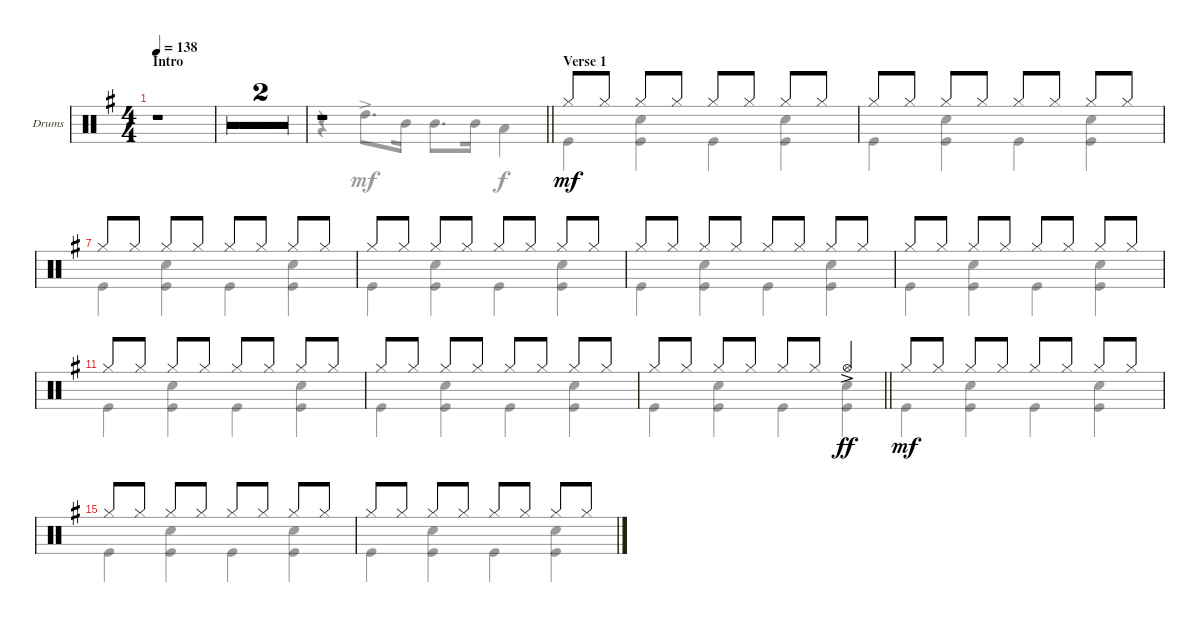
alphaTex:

\defaultSystemsLayout 4
\bracketExtendMode groupsimilarinstruments
\useSystemSignSeparator
\multiBarRest
\multiTrackTrackNamePolicy allsystems
\firstSystemTrackNameMode fullname
\firstSystemTrackNameOrientation horizontal
\otherSystemsTrackNameOrientation horizontal
\defaultBarNumberDisplay FirstOfSystem
\track ("Drums" "Dr.") {multiBarRest instrument percussion}
\staff {score}
\articulation defaults
\voice
\ts (4 4)
\section ("" "Intro")
\tempo 138
\clef neutral
\scale
0.184613
\ks g
r.1{dy mf} |
\scale 0
r.1 |
\scale 0
r.1 |
\scale
0.331907
\barLineRight lightlight
r.1 |
\section ("" "Verse 1")
\scale
0.241677 "Hi-Hat (closed)".8 "Hi-Hat (closed)".8 "Hi-Hat (closed)".8 "Hi-Hat (closed)".8 "Hi-Hat (closed)".8 "Hi-Hat (closed)".8 "Hi-Hat (closed)".8 "Hi-Hat (closed)".8 |
\scale
0.241677 "Hi-Hat (closed)".8 "Hi-Hat (closed)".8 "Hi-Hat (closed)".8 "Hi-Hat (closed)".8 "Hi-Hat (closed)".8 "Hi-Hat (closed)".8 "Hi-Hat (closed)".8 "Hi-Hat (closed)".8 |
"Hi-Hat (closed)".8 "Hi-Hat (closed)".8 "Hi-Hat (closed)".8 "Hi-Hat (closed)".8 "Hi-Hat (closed)".8 "Hi-Hat (closed)".8 "Hi-Hat (closed)".8 "Hi-Hat (closed)".8 |
"Hi-Hat (closed)".8 "Hi-Hat (closed)".8 "Hi-Hat (closed)".8 "Hi-Hat (closed)".8 "Hi-Hat (closed)".8 "Hi-Hat (closed)".8 "Hi-Hat (closed)".8 "Hi-Hat (closed)".8 |
"Hi-Hat (closed)".8 "Hi-Hat (closed)".8 "Hi-Hat (closed)".8 "Hi-Hat (closed)".8 "Hi-Hat (closed)".8 "Hi-Hat (closed)".8 "Hi-Hat (closed)".8 "Hi-Hat (closed)".8 |
"Hi-Hat (closed)".8 "Hi-Hat (closed)".8 "Hi-Hat (closed)".8 "Hi-Hat (closed)".8 "Hi-Hat (closed)".8 "Hi-Hat (closed)".8 "Hi-Hat (closed)".8 "Hi-Hat (closed)".8 |
"Hi-Hat (closed)".8 "Hi-Hat (closed)".8 "Hi-Hat (closed)".8 "Hi-Hat (closed)".8 "Hi-Hat (closed)".8 "Hi-Hat (closed)".8 "Hi-Hat (closed)".8 "Hi-Hat (closed)".8 |
"Hi-Hat (closed)".8 "Hi-Hat (closed)".8 "Hi-Hat (closed)".8 "Hi-Hat (closed)".8 "Hi-Hat (closed)".8 "Hi-Hat (closed)".8 "Hi-Hat (closed)".8 "Hi-Hat (closed)".8 |
\barLineRight lightlight "Hi-Hat (closed)".8 "Hi-Hat (closed)".8 "Hi-Hat (closed)".8 "Hi-Hat (closed)".8 "Hi-Hat (closed)".8 "Hi-Hat (closed)".8 "Hi-Hat (open)"{ac}.4{dy ff}
|
"Hi-Hat (closed)".8{dy mf} "Hi-Hat (closed)".8 "Hi-Hat (closed)".8 "Hi-Hat (closed)".8 "Hi-Hat (closed)".8 "Hi-Hat (closed)".8 "Hi-Hat (closed)".8 "Hi-Hat (closed)".8 |
"Hi-Hat (closed)".8 "Hi-Hat (closed)".8 "Hi-Hat (closed)".8 "Hi-Hat (closed)".8 "Hi-Hat (closed)".8 "Hi-Hat (closed)".8 "Hi-Hat (closed)".8 "Hi-Hat (closed)".8 |
"Hi-Hat (closed)".8 "Hi-Hat (closed)".8 "Hi-Hat (closed)".8 "Hi-Hat (closed)".8 "Hi-Hat (closed)".8 "Hi-Hat (closed)".8 "Hi-Hat (closed)".8 "Hi-Hat (closed)".8
\voice
\clef neutral
\ottava regular
\simile none
\scale
0.184613
\ks g
|
\scale 0
|
\scale 0
|
\scale
0.331907
\barLineRight lightlight
r.4 "High Tom (hit)"{ac}.8{d} "Mid Tom (hit)".16 "Mid Tom (hit)".8{d} "Mid Tom (hit)".16 "Low Tom (hit)".4{dy f} |
\scale
0.241677 "Kick (hit)".4 ("Kick (hit)" "Snare (hit) 2").4 "Kick (hit)".4 ("Kick (hit)" "Snare (hit) 2").4 |
\scale
0.241677 "Kick (hit)".4 ("Kick (hit)" "Snare (hit) 2").4 "Kick (hit)".4 ("Kick (hit)" "Snare (hit) 2").4 |
"Kick (hit)".4 ("Kick (hit)" "Snare (hit) 2").4 "Kick (hit)".4 ("Kick (hit)" "Snare (hit) 2").4 |
"Kick (hit)".4 ("Kick (hit)" "Snare (hit) 2").4 "Kick (hit)".4 ("Kick (hit)" "Snare (hit) 2").4 |
"Kick (hit)".4 ("Kick (hit)" "Snare (hit) 2").4 "Kick (hit)".4 ("Kick (hit)" "Snare (hit) 2").4 |
"Kick (hit)".4 ("Kick (hit)" "Snare (hit) 2").4 "Kick (hit)".4 ("Kick (hit)" "Snare (hit) 2").4 |
"Kick (hit)".4 ("Kick (hit)" "Snare (hit) 2").4 "Kick (hit)".4 ("Kick (hit)" "Snare (hit) 2").4 |
"Kick (hit)".4 ("Kick (hit)" "Snare (hit) 2").4 "Kick (hit)".4 ("Kick (hit)" "Snare (hit) 2").4 |
\barLineRight lightlight "Kick (hit)".4
("Kick (hit)" "Snare (hit) 2").4 "Kick (hit)".4 ("Kick (hit)" "Snare (hit) 2").4 |
"Kick (hit)".4 ("Kick (hit)" "Snare (hit) 2").4 "Kick (hit)".4 ("Kick (hit)" "Snare (hit) 2").4 |
"Kick (hit)".4 ("Kick (hit)" "Snare (hit) 2").4 "Kick (hit)".4 ("Kick (hit)" "Snare (hit) 2").4 |
"Kick (hit)".4 ("Kick (hit)" "Snare (hit) 2").4 "Kick (hit)".4 ("Kick (hit)" "Snare (hit) 2").4
